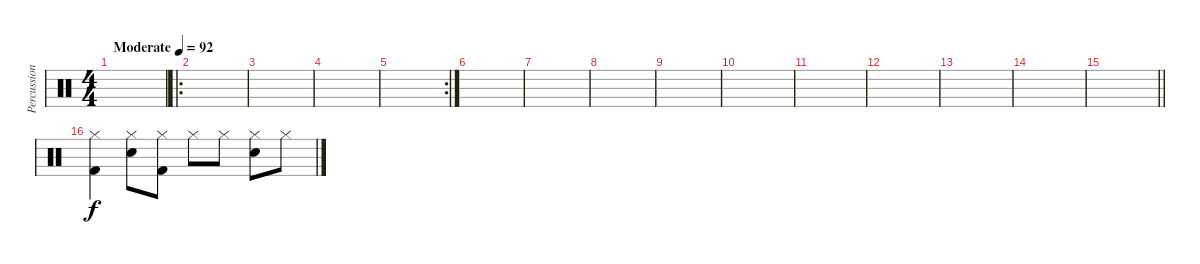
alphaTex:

\track ("Percussion" "Percussion") {instrument percussion}
\staff {score}
\articulation defaults
\ts (4 4)
\tempo (92 "Moderate")
\clef neutral
\ks c
|
\ro
|
|
|
\rc 2
|
|
|
|
|
|
|
|
|
|
\barLineRight lightlight
|
("Hi-Hat (closed)" "Kick (hit) 2").4 ("Hi-Hat (closed)" "Snare (hit) 2").8 ("Hi-Hat (closed)" "Kick (hit) 2").8 "Hi-Hat (closed)".8 "Hi-Hat (closed)".8 ("Hi-Hat (closed)" "Snare (hit) 2").8 "Hi-Hat (closed)".8
